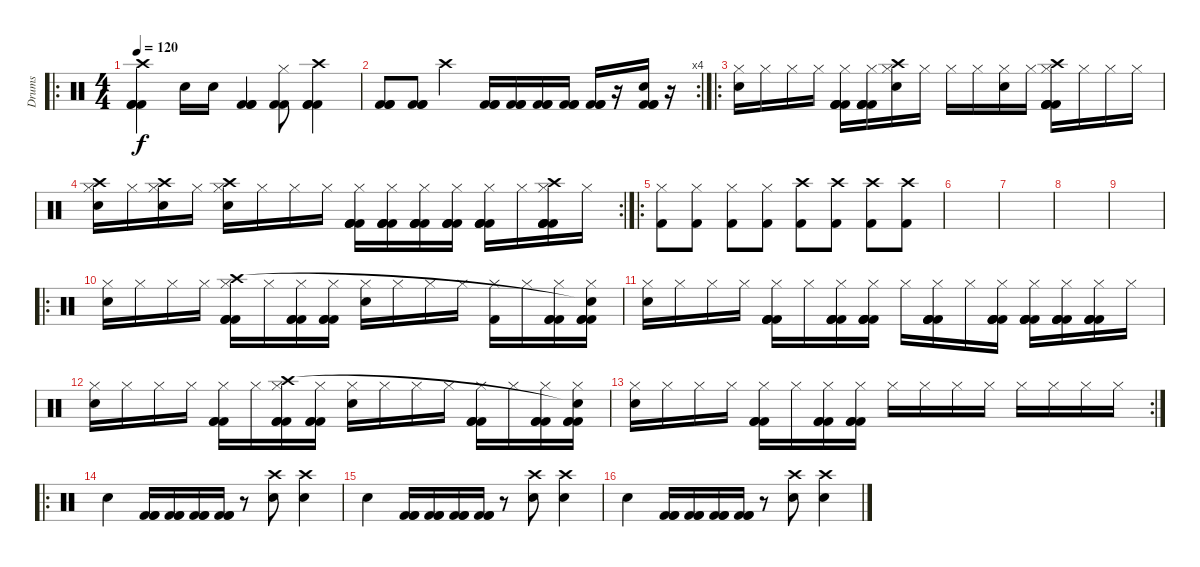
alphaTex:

\track ("Drums" "Drums") {instrument percussion}
\staff {score}
\articulation defaults
\ro
\ts (4 4)
\tempo 120
\clef neutral
\ks c
("Crash high (hit)" "Kick (hit) 2" "Kick (hit) 2" "Kick (hit) 2").4{dy f} "Snare (hit) 2".16 "Snare (hit) 2".16 ("Kick (hit) 2" "Kick (hit) 2" "Kick (hit) 2").4 ("Hi-Hat (closed)" "Kick (hit) 2" "Kick (hit) 2").8 ("Crash high (hit)" "Kick (hit) 2" "Kick (hit) 2" "Kick (hit) 2").4 |
\rc 4
("Kick (hit) 2" "Kick (hit) 2" "Kick (hit) 2").8 ("Kick (hit) 2" "Kick (hit) 2" "Kick (hit) 2").8 "Crash high (hit)".4 ("Kick (hit) 2" "Kick (hit) 2" "Kick (hit) 2").16 ("Kick (hit) 2" "Kick (hit) 2" "Kick (hit) 2").16 ("Kick (hit) 2" "Kick (hit) 2" "Kick (hit) 2").16 ("Kick (hit) 2" "Kick (hit) 2" "Kick (hit) 2").16 ("Kick (hit) 2" "Kick (hit) 2" "Kick (hit) 2").16 r.16 ("Snare (hit) 2" "Kick (hit) 2" "Kick (hit) 2" "Kick (hit) 2").16 r.16 |
\ro
("Hi-Hat (closed)" "Snare (hit) 2").16 "Hi-Hat (closed)".16 "Hi-Hat (closed)".16 "Hi-Hat (closed)".16 ("Hi-Hat (closed)" "Kick (hit) 2" "Kick (hit) 2" "Kick (hit) 2" "Kick (hit) 2").16 ("Hi-Hat (closed)" "Kick (hit) 2" "Kick (hit) 2" "Kick (hit) 2" "Kick (hit) 2").16 ("Hi-Hat (closed)" "Crash high (hit)" "Snare (hit) 2").16 "Hi-Hat (closed)".16 "Hi-Hat (closed)".16 "Hi-Hat (closed)".16 ("Hi-Hat (closed)" "Snare (hit) 2").16 "Hi-Hat (closed)".16 ("Hi-Hat (closed)" "Crash high (hit)" "Kick (hit) 2" "Kick (hit) 2" "Kick (hit) 2" "Kick (hit) 2").16 "Hi-Hat (closed)".16 "Hi-Hat (closed)".16 "Hi-Hat (closed)".16 |
\rc 2
("Hi-Hat (closed)" "Snare (hit) 2" "Crash high (hit)").16 "Hi-Hat (closed)".16 ("Hi-Hat (closed)" "Snare (hit) 2" "Crash high (hit)").16 "Hi-Hat (closed)".16 ("Hi-Hat (closed)" "Snare (hit) 2" "Crash high (hit)").16 "Hi-Hat (closed)".16 "Hi-Hat (closed)".16 "Hi-Hat (closed)".16 ("Hi-Hat (closed)" "Kick (hit) 2" "Kick (hit) 2" "Kick (hit) 2" "Kick (hit) 2").16 ("Hi-Hat (closed)" "Kick (hit) 2" "Kick (hit) 2" "Kick (hit) 2" "Kick (hit) 2").16 ("Hi-Hat (closed)" "Kick (hit) 2" "Kick (hit) 2" "Kick (hit) 2" "Kick (hit) 2").16 ("Hi-Hat (closed)" "Kick (hit) 2" "Kick (hit) 2" "Kick (hit) 2" "Kick (hit) 2").16 ("Hi-Hat (closed)" "Kick (hit) 2" "Kick (hit) 2" "Kick (hit) 2" "Kick (hit) 2").16 "Hi-Hat (closed)".16 ("Hi-Hat (closed)" "Kick (hit) 2" "Kick (hit) 2" "Kick (hit) 2" "Kick (hit) 2" "Crash high (hit)").16 "Hi-Hat (closed)".16 |
\ro
("Hi-Hat (closed)" "Kick (hit) 2").8 ("Hi-Hat (closed)" "Kick (hit) 2").8 ("Hi-Hat (closed)" "Kick (hit) 2").8 ("Hi-Hat (closed)" "Kick (hit) 2").8 ("Crash high (hit)" "Kick (hit) 2").8 ("Crash high (hit)" "Kick (hit) 2").8 ("Crash high (hit)" "Kick (hit) 2").8 ("Crash high (hit)" "Kick (hit) 2").8 |
|
|
|
|
\ro
("Hi-Hat (closed)" "Snare (hit) 2").16 "Hi-Hat (closed)".16 "Hi-Hat (closed)".16 "Hi-Hat (closed)".16 ("Hi-Hat (closed)" "Kick (hit) 2" "Kick (hit) 2" "Kick (hit) 2" "Crash high (hit)").16 "Hi-Hat (closed)".16 ("Hi-Hat (closed)" "Kick (hit) 2" "Kick (hit) 2" "Kick (hit) 2").16 ("Hi-Hat (closed)" "Kick (hit) 2" "Kick (hit) 2" "Kick (hit) 2").16 ("Hi-Hat (closed)" "Snare (hit) 2").16 "Hi-Hat (closed)".16 "Hi-Hat (closed)".16 "Hi-Hat (closed)".16 ("Hi-Hat (closed)" "Kick (hit) 2").16 "Hi-Hat (closed)".16 ("Hi-Hat (closed)" "Kick (hit) 2" "Kick (hit) 2" "Kick (hit) 2").16 ("Hi-Hat (closed)" "Kick (hit) 2" "Kick (hit) 2" "Kick (hit) 2" "Snare (hit)"{t}).16 |
("Hi-Hat (closed)" "Snare (hit) 2").16 "Hi-Hat (closed)".16 "Hi-Hat (closed)".16 "Hi-Hat (closed)".16 ("Hi-Hat (closed)" "Kick (hit) 2" "Kick (hit) 2" "Kick (hit) 2" "Kick (hit) 2").16 "Hi-Hat (closed)".16 ("Hi-Hat (closed)" "Kick (hit) 2" "Kick (hit) 2" "Kick (hit) 2" "Kick (hit) 2").16 ("Hi-Hat (closed)" "Kick (hit) 2" "Kick (hit) 2" "Kick (hit) 2" "Kick (hit) 2").16 "Hi-Hat (closed)".16 ("Hi-Hat (closed)" "Kick (hit) 2" "Kick (hit) 2" "Kick (hit) 2" "Kick (hit) 2").16 "Hi-Hat (closed)".16 ("Hi-Hat (closed)" "Kick (hit) 2" "Kick (hit) 2" "Kick (hit) 2" "Kick (hit) 2").16 ("Hi-Hat (closed)" "Kick (hit) 2" "Kick (hit) 2" "Kick (hit) 2" "Kick (hit) 2").16 ("Hi-Hat (closed)" "Kick (hit) 2" "Kick (hit) 2" "Kick (hit) 2" "Kick (hit) 2").16 ("Hi-Hat (closed)" "Kick (hit) 2" "Kick (hit) 2" "Kick (hit) 2" "Kick (hit) 2").16 "Hi-Hat (closed)".16 |
("Hi-Hat (closed)" "Snare (hit) 2").16 "Hi-Hat (closed)".16 "Hi-Hat (closed)".16 "Hi-Hat (closed)".16 ("Hi-Hat (closed)" "Kick (hit) 2" "Kick (hit) 2" "Kick (hit) 2").16 "Hi-Hat (closed)".16 ("Hi-Hat (closed)" "Kick (hit) 2" "Kick (hit) 2" "Kick (hit) 2" "Crash high (hit)").16 ("Hi-Hat (closed)" "Kick (hit) 2" "Kick (hit) 2" "Kick (hit) 2").16 ("Hi-Hat (closed)" "Snare (hit) 2").16 "Hi-Hat (closed)".16 "Hi-Hat (closed)".16 "Hi-Hat (closed)".16 ("Hi-Hat (closed)" "Kick (hit) 2" "Kick (hit) 2" "Kick (hit) 2").16 "Hi-Hat (closed)".16 ("Hi-Hat (closed)" "Kick (hit) 2" "Kick (hit) 2" "Kick (hit) 2").16 ("Hi-Hat (closed)" "Kick (hit) 2" "Kick (hit) 2" "Kick (hit) 2" "Snare (hit)"{t}).16 |
\rc 2
("Hi-Hat (closed)" "Snare (hit) 2").16 "Hi-Hat (closed)".16 "Hi-Hat (closed)".16 "Hi-Hat (closed)".16 ("Hi-Hat (closed)" "Kick (hit) 2" "Kick (hit) 2" "Kick (hit) 2").16 "Hi-Hat (closed)".16 ("Hi-Hat (closed)" "Kick (hit) 2" "Kick (hit) 2" "Kick (hit) 2").16 ("Hi-Hat (closed)" "Kick (hit) 2" "Kick (hit) 2" "Kick (hit) 2").16 "Hi-Hat (closed)".16 "Hi-Hat (closed)".16 "Hi-Hat (closed)".16 "Hi-Hat (closed)".16 "Hi-Hat (closed)".16 "Hi-Hat (closed)".16 "Hi-Hat (closed)".16 "Hi-Hat (closed)".16 |
\ro "Snare (hit) 2".4
("Kick (hit) 2" "Kick (hit) 2" "Kick (hit) 2").16 ("Kick (hit) 2" "Kick (hit) 2" "Kick (hit) 2").16 ("Kick (hit) 2" "Kick (hit) 2" "Kick (hit) 2").16 ("Kick (hit) 2" "Kick (hit) 2" "Kick (hit) 2").16 r.8 ("Crash high (hit)" "Snare (hit) 2").8 ("Crash high (hit)" "Snare (hit) 2").4 |
"Snare (hit) 2".4 ("Kick (hit) 2" "Kick (hit) 2" "Kick (hit) 2").16 ("Kick (hit) 2" "Kick (hit) 2" "Kick (hit) 2").16 ("Kick (hit) 2" "Kick (hit) 2" "Kick (hit) 2").16 ("Kick (hit) 2" "Kick (hit) 2" "Kick (hit) 2").16 r.8 ("Crash high (hit)" "Snare (hit) 2").8 ("Crash high (hit)" "Snare (hit) 2").4 |
"Snare (hit) 2".4 ("Kick (hit) 2" "Kick (hit) 2" "Kick (hit) 2").16 ("Kick (hit) 2" "Kick (hit) 2" "Kick (hit) 2").16 ("Kick (hit) 2" "Kick (hit) 2" "Kick (hit) 2").16 ("Kick (hit) 2" "Kick (hit) 2" "Kick (hit) 2").16 r.8 ("Crash high (hit)" "Snare (hit) 2").8 ("Crash high (hit)" "Snare (hit) 2").4
